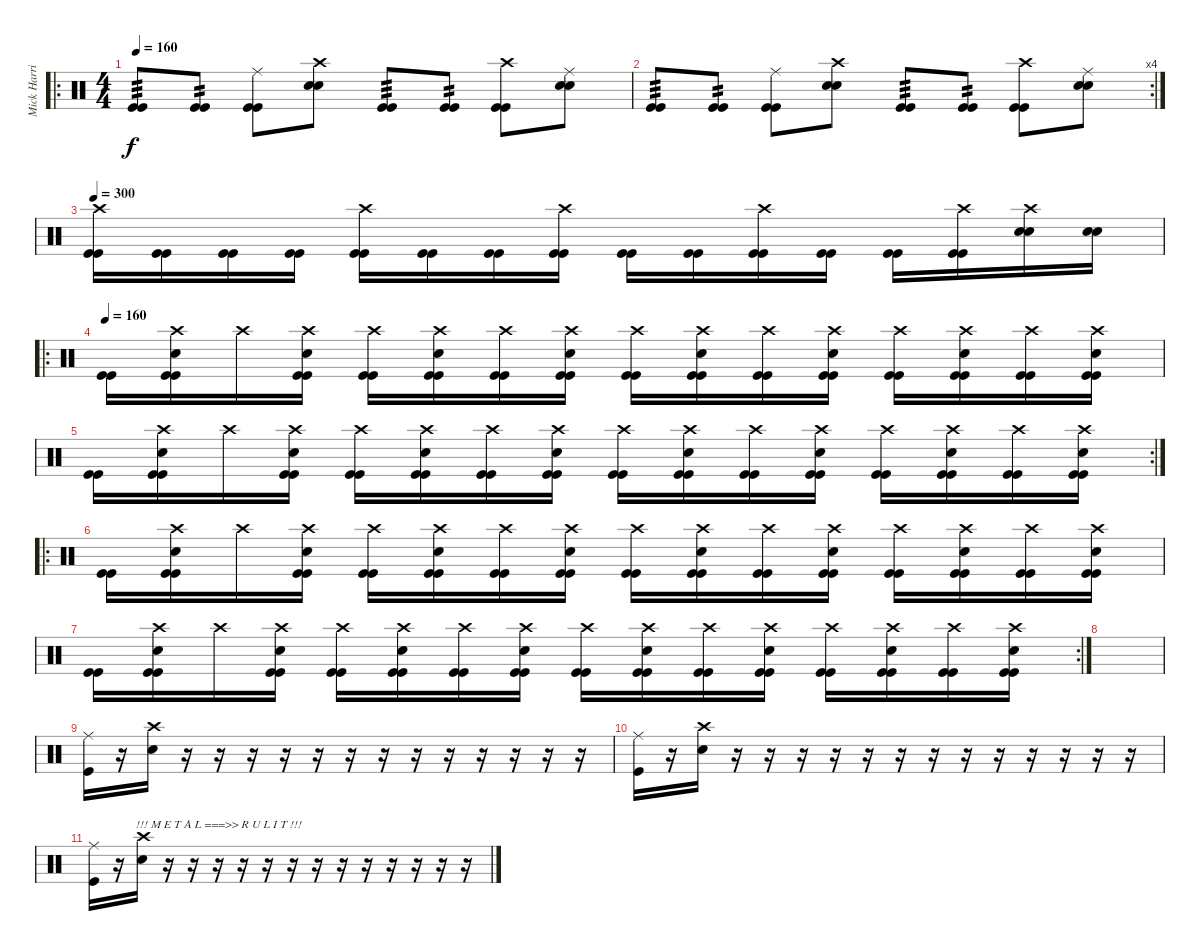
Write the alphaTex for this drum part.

\track ("Mick Harris" "Mick Harri") {instrument percussion}
\staff {score}
\articulation defaults
\ro
\ts (4 4)
\tempo 160
\clef neutral
\ks c
("Kick (hit)" "Kick (hit)").8{tp 3 dy f} ("Kick (hit)" "Kick (hit)").8{tp 2} ("Ride (middle)" "Kick (hit)" "Kick (hit)").8 ("Crash high (hit)" "Snare (hit) 2" "Snare (hit) 2").8 ("Kick (hit)" "Kick (hit)").8{tp 3} ("Kick (hit)" "Kick (hit)").8{tp 2} ("Crash high (hit)" "Kick (hit)" "Kick (hit)").8 ("Ride (middle)" "Snare (hit) 2" "Snare (hit) 2").8 |
\rc 4
("Kick (hit)" "Kick (hit)").8{tp 3} ("Kick (hit)" "Kick (hit)").8{tp 2} ("Ride (middle)" "Kick (hit)" "Kick (hit)").8 ("Crash high (hit)" "Snare (hit) 2" "Snare (hit) 2").8 ("Kick (hit)" "Kick (hit)").8{tp 3} ("Kick (hit)" "Kick (hit)").8{tp 2} ("Crash high (hit)" "Kick (hit)" "Kick (hit)").8 ("Ride (middle)" "Snare (hit) 2" "Snare (hit) 2").8 |
\tempo 300
("Crash high (hit)" "Kick (hit)" "Kick (hit)").16 ("Kick (hit)" "Kick (hit)").16 ("Kick (hit)" "Kick (hit)").16 ("Kick (hit)" "Kick (hit)").16 ("Crash high (hit)" "Kick (hit)" "Kick (hit)").16 ("Kick (hit)" "Kick (hit)").16 ("Kick (hit)" "Kick (hit)").16 ("Crash high (hit)" "Kick (hit)" "Kick (hit)").16 ("Kick (hit)" "Kick (hit)").16 ("Kick (hit)" "Kick (hit)").16 ("Crash high (hit)" "Kick (hit)" "Kick (hit)").16 ("Kick (hit)" "Kick (hit)").16 ("Kick (hit)" "Kick (hit)").16 ("Crash high (hit)" "Kick (hit)" "Kick (hit)").16 ("Crash high (hit)" "Snare (hit) 2" "Snare (hit) 2").16 ("Snare (hit) 2" "Snare (hit) 2").16 |
\ro
\tempo 160
("Kick (hit)" "Kick (hit)").16 ("Crash high (hit)" "Snare (hit) 2" "Kick (hit)" "Kick (hit)").16 "Crash high (hit)".16 ("Crash high (hit)" "Snare (hit) 2" "Kick (hit)" "Kick (hit)").16 ("Crash high (hit)" "Kick (hit)" "Kick (hit)").16 ("Crash high (hit)" "Snare (hit) 2" "Kick (hit)" "Kick (hit)").16 ("Crash high (hit)" "Kick (hit)" "Kick (hit)").16 ("Crash high (hit)" "Snare (hit) 2" "Kick (hit)" "Kick (hit)").16 ("Crash high (hit)" "Kick (hit)" "Kick (hit)").16 ("Crash high (hit)" "Snare (hit) 2" "Kick (hit)" "Kick (hit)").16 ("Crash high (hit)" "Kick (hit)" "Kick (hit)").16 ("Crash high (hit)" "Snare (hit) 2" "Kick (hit)" "Kick (hit)").16 ("Crash high (hit)" "Kick (hit)" "Kick (hit)").16 ("Crash high (hit)" "Snare (hit) 2" "Kick (hit)" "Kick (hit)").16 ("Crash high (hit)" "Kick (hit)" "Kick (hit)").16 ("Crash high (hit)" "Snare (hit) 2" "Kick (hit)" "Kick (hit)").16 |
\rc 2
("Kick (hit)" "Kick (hit)").16 ("Crash high (hit)" "Snare (hit) 2" "Kick (hit)" "Kick (hit)").16 "Crash high (hit)".16 ("Crash high (hit)" "Snare (hit) 2" "Kick (hit)" "Kick (hit)").16 ("Crash high (hit)" "Kick (hit)" "Kick (hit)").16 ("Crash high (hit)" "Snare (hit) 2" "Kick (hit)" "Kick (hit)").16 ("Crash high (hit)" "Kick (hit)" "Kick (hit)").16 ("Crash high (hit)" "Snare (hit) 2" "Kick (hit)" "Kick (hit)").16 ("Crash high (hit)" "Kick (hit)" "Kick (hit)").16 ("Crash high (hit)" "Snare (hit) 2" "Kick (hit)" "Kick (hit)").16 ("Crash high (hit)" "Kick (hit)" "Kick (hit)").16 ("Crash high (hit)" "Snare (hit) 2" "Kick (hit)" "Kick (hit)").16 ("Crash high (hit)" "Kick (hit)" "Kick (hit)").16 ("Crash high (hit)" "Snare (hit) 2" "Kick (hit)" "Kick (hit)").16 ("Crash high (hit)" "Kick (hit)" "Kick (hit)").16 ("Crash high (hit)" "Snare (hit) 2" "Kick (hit)" "Kick (hit)").16 |
\ro
("Kick (hit)" "Kick (hit)").16 ("Crash high (hit)" "Snare (hit) 2" "Kick (hit)" "Kick (hit)").16 "Crash high (hit)".16 ("Crash high (hit)" "Snare (hit) 2" "Kick (hit)" "Kick (hit)").16 ("Crash high (hit)" "Kick (hit)" "Kick (hit)").16 ("Crash high (hit)" "Snare (hit) 2" "Kick (hit)" "Kick (hit)").16 ("Crash high (hit)" "Kick (hit)" "Kick (hit)").16 ("Crash high (hit)" "Snare (hit) 2" "Kick (hit)" "Kick (hit)").16 ("Crash high (hit)" "Kick (hit)" "Kick (hit)").16 ("Crash high (hit)" "Snare (hit) 2" "Kick (hit)" "Kick (hit)").16 ("Crash high (hit)" "Kick (hit)" "Kick (hit)").16 ("Crash high (hit)" "Snare (hit) 2" "Kick (hit)" "Kick (hit)").16 ("Crash high (hit)" "Kick (hit)" "Kick (hit)").16 ("Crash high (hit)" "Snare (hit) 2" "Kick (hit)" "Kick (hit)").16 ("Crash high (hit)" "Kick (hit)" "Kick (hit)").16 ("Crash high (hit)" "Snare (hit) 2" "Kick (hit)" "Kick (hit)").16 |
\rc 2
("Kick (hit)" "Kick (hit)").16 ("Crash high (hit)" "Snare (hit) 2" "Kick (hit)" "Kick (hit)").16 "Crash high (hit)".16 ("Crash high (hit)" "Snare (hit) 2" "Kick (hit)" "Kick (hit)").16 ("Crash high (hit)" "Kick (hit)" "Kick (hit)").16 ("Crash high (hit)" "Snare (hit) 2" "Kick (hit)" "Kick (hit)").16 ("Crash high (hit)" "Kick (hit)" "Kick (hit)").16 ("Crash high (hit)" "Snare (hit) 2" "Kick (hit)" "Kick (hit)").16 ("Crash high (hit)" "Kick (hit)" "Kick (hit)").16 ("Crash high (hit)" "Snare (hit) 2" "Kick (hit)" "Kick (hit)").16 ("Crash high (hit)" "Kick (hit)" "Kick (hit)").16 ("Crash high (hit)" "Snare (hit) 2" "Kick (hit)" "Kick (hit)").16 ("Crash high (hit)" "Kick (hit)" "Kick (hit)").16 ("Crash high (hit)" "Snare (hit) 2" "Kick (hit)" "Kick (hit)").16 ("Crash high (hit)" "Kick (hit)" "Kick (hit)").16 ("Crash high (hit)" "Snare (hit) 2" "Kick (hit)" "Kick (hit)").16 |
|
("Ride (middle)" "Kick (hit)").16 r.16 ("Crash high (hit)" "Snare (hit) 2").16 r.16 r.16 r.16 r.16 r.16 r.16 r.16 r.16 r.16 r.16 r.16 r.16 r.16 |
("Ride (middle)" "Kick (hit)").16 r.16 ("Crash high (hit)" "Snare (hit) 2").16 r.16 r.16 r.16 r.16 r.16 r.16 r.16 r.16 r.16 r.16 r.16 r.16 r.16 |
("Ride (middle)" "Kick (hit)").16{txt "              !!! M E T A L ===>> R U L I T !!!"} r.16 ("Crash high (hit)" "Snare (hit) 2").16 r.16 r.16 r.16 r.16 r.16 r.16 r.16 r.16 r.16 r.16 r.16 r.16 r.16
